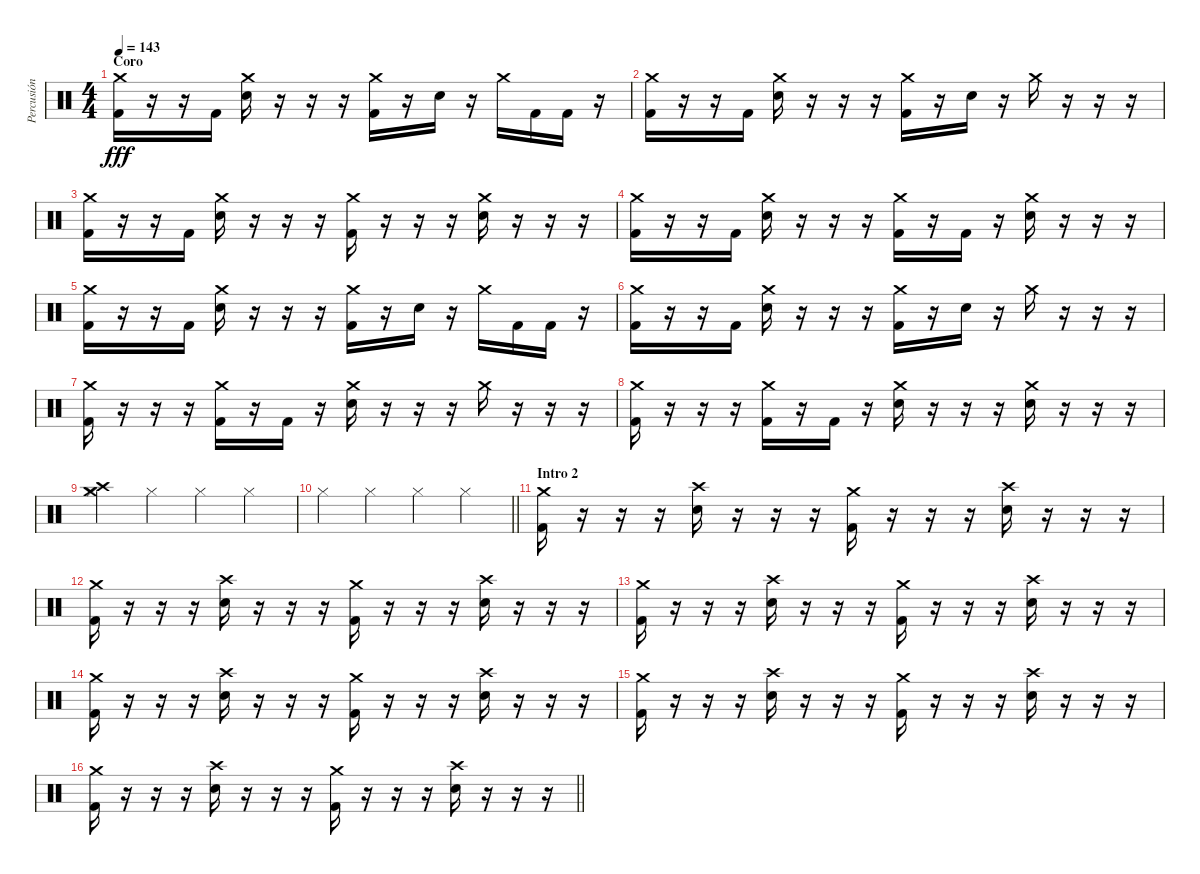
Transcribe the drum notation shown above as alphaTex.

\track ("Percusión" "Percusión") {instrument percussion}
\staff {score}
\articulation defaults
\ts (4 4)
\section ("" "Coro")
\tempo 143
\clef neutral
\ks c
("Crash medium (hit)" "Kick (hit) 2").16{dy fff} r.16 r.16 "Kick (hit) 2".16 ("Crash medium (hit)" "Snare (hit) 2").16 r.16 r.16 r.16 ("Crash medium (hit)" "Kick (hit) 2").16 r.16 "Snare (hit) 2".16 r.16 "Crash medium (hit)".16 "Kick (hit) 2".16 "Kick (hit) 2".16 r.16 |
("Crash medium (hit)" "Kick (hit) 2").16 r.16 r.16 "Kick (hit) 2".16 ("Crash medium (hit)" "Snare (hit) 2").16 r.16 r.16 r.16 ("Crash medium (hit)" "Kick (hit) 2").16 r.16 "Snare (hit) 2".16 r.16 "Crash medium (hit)".16 r.16 r.16 r.16 |
("Crash medium (hit)" "Kick (hit) 2").16 r.16 r.16 "Kick (hit) 2".16 ("Crash medium (hit)" "Snare (hit) 2").16 r.16 r.16 r.16 ("Crash medium (hit)" "Kick (hit) 2").16 r.16 r.16 r.16 ("Crash medium (hit)" "Snare (hit) 2").16 r.16 r.16 r.16 |
("Crash medium (hit)" "Kick (hit) 2").16 r.16 r.16 "Kick (hit) 2".16 ("Crash medium (hit)" "Snare (hit) 2").16 r.16 r.16 r.16 ("Crash medium (hit)" "Kick (hit) 2").16 r.16 "Kick (hit) 2".16 r.16 ("Crash medium (hit)" "Snare (hit) 2").16 r.16 r.16 r.16 |
("Crash medium (hit)" "Kick (hit) 2").16 r.16 r.16 "Kick (hit) 2".16 ("Crash medium (hit)" "Snare (hit) 2").16 r.16 r.16 r.16 ("Crash medium (hit)" "Kick (hit) 2").16 r.16 "Snare (hit) 2".16 r.16 "Crash medium (hit)".16 "Kick (hit) 2".16 "Kick (hit) 2".16 r.16 |
("Crash medium (hit)" "Kick (hit) 2").16 r.16 r.16 "Kick (hit) 2".16 ("Crash medium (hit)" "Snare (hit) 2").16 r.16 r.16 r.16 ("Crash medium (hit)" "Kick (hit) 2").16 r.16 "Snare (hit) 2".16 r.16 "Crash medium (hit)".16 r.16 r.16 r.16 |
("Crash medium (hit)" "Kick (hit) 2").16 r.16 r.16 r.16 ("Crash medium (hit)" "Kick (hit) 2").16 r.16 "Kick (hit) 2".16 r.16 ("Crash medium (hit)" "Snare (hit) 2").16 r.16 r.16 r.16 "Crash medium (hit)".16 r.16 r.16 r.16 |
("Crash medium (hit)" "Kick (hit) 2").16 r.16 r.16 r.16 ("Crash medium (hit)" "Kick (hit) 2").16 r.16 "Kick (hit) 2".16 r.16 ("Crash medium (hit)" "Snare (hit) 2").16 r.16 r.16 r.16 ("Crash medium (hit)" "Snare (hit) 2").16 r.16 r.16 r.16 |
("Hi-Hat (closed)" "Crash medium (hit)" "Crash high (hit)").4 "Hi-Hat (closed)".4 "Hi-Hat (closed)".4 "Hi-Hat (closed)".4 |
\barLineRight lightlight "Hi-Hat (closed)".4 "Hi-Hat (closed)".4 "Hi-Hat (closed)".4 "Hi-Hat (closed)".4
|
\section ("" "Intro 2")
("Kick (hit) 2" "Crash medium (hit)").16 r.16 r.16 r.16 ("Snare (hit) 2" "Crash high (hit)").16 r.16 r.16 r.16 ("Kick (hit) 2" "Crash medium (hit)").16 r.16 r.16 r.16 ("Snare (hit) 2" "Crash high (hit)").16 r.16 r.16 r.16 |
("Kick (hit) 2" "Crash medium (hit)").16 r.16 r.16 r.16 ("Snare (hit) 2" "Crash high (hit)").16 r.16 r.16 r.16 ("Kick (hit) 2" "Crash medium (hit)").16 r.16 r.16 r.16 ("Snare (hit) 2" "Crash high (hit)").16 r.16 r.16 r.16 |
("Kick (hit) 2" "Crash medium (hit)").16 r.16 r.16 r.16 ("Snare (hit) 2" "Crash high (hit)").16 r.16 r.16 r.16 ("Kick (hit) 2" "Crash medium (hit)").16 r.16 r.16 r.16 ("Snare (hit) 2" "Crash high (hit)").16 r.16 r.16 r.16 |
("Kick (hit) 2" "Crash medium (hit)").16 r.16 r.16 r.16 ("Snare (hit) 2" "Crash high (hit)").16 r.16 r.16 r.16 ("Kick (hit) 2" "Crash medium (hit)").16 r.16 r.16 r.16 ("Snare (hit) 2" "Crash high (hit)").16 r.16 r.16 r.16 |
("Kick (hit) 2" "Crash medium (hit)").16 r.16 r.16 r.16 ("Snare (hit) 2" "Crash high (hit)").16 r.16 r.16 r.16 ("Kick (hit) 2" "Crash medium (hit)").16 r.16 r.16 r.16 ("Snare (hit) 2" "Crash high (hit)").16 r.16 r.16 r.16 |
\barLineRight lightlight
("Kick (hit) 2" "Crash medium (hit)").16 r.16 r.16 r.16 ("Snare (hit) 2" "Crash high (hit)").16 r.16 r.16 r.16 ("Kick (hit) 2" "Crash medium (hit)").16 r.16 r.16 r.16 ("Snare (hit) 2" "Crash high (hit)").16 r.16 r.16 r.16
